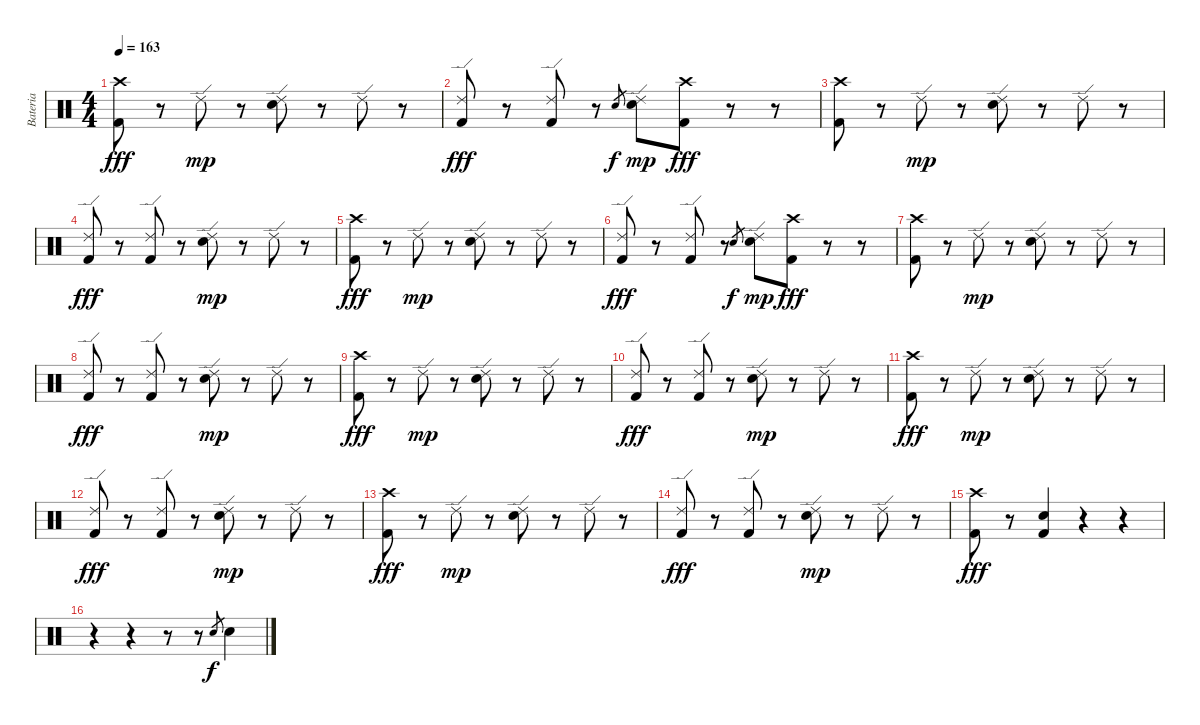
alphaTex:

\track ("Bateria" "Bateria") {instrument percussion}
\staff {score}
\articulation defaults
\ts (4 4)
\tempo 163
\clef neutral
\ks c
("Crash high (hit)" "Kick (hit) 2").8{dy fff} r.8 "Ride (edge) 2".8{dy mp} r.8 ("Ride (edge) 2" "Electric Snare (hit)").8 r.8 "Ride (edge) 2".8 r.8 |
("Ride (edge) 2" "Kick (hit) 2").8{dy fff} r.8 ("Ride (edge) 2" "Kick (hit) 2").8 r.8 "Electric Snare (hit)".8{gr dy f} ("Ride (edge) 2" "Electric Snare (hit)").8{dy mp} ("Crash high (hit)" "Kick (hit) 2").8{dy fff} r.8 r.8 |
("Crash high (hit)" "Kick (hit) 2").8 r.8 "Ride (edge) 2".8{dy mp} r.8 ("Ride (edge) 2" "Electric Snare (hit)").8 r.8 "Ride (edge) 2".8 r.8 |
("Ride (edge) 2" "Kick (hit) 2").8{dy fff} r.8 ("Ride (edge) 2" "Kick (hit) 2").8 r.8 ("Ride (edge) 2" "Electric Snare (hit)").8{dy mp} r.8 "Ride (edge) 2".8 r.8 |
("Crash high (hit)" "Kick (hit) 2").8{dy fff} r.8 "Ride (edge) 2".8{dy mp} r.8 ("Ride (edge) 2" "Electric Snare (hit)").8 r.8 "Ride (edge) 2".8 r.8 |
("Ride (edge) 2" "Kick (hit) 2").8{dy fff} r.8 ("Ride (edge) 2" "Kick (hit) 2").8 r.8 "Electric Snare (hit)".8{gr dy f} ("Ride (edge) 2" "Electric Snare (hit)").8{dy mp} ("Crash high (hit)" "Kick (hit) 2").8{dy fff} r.8 r.8 |
("Crash high (hit)" "Kick (hit) 2").8 r.8 "Ride (edge) 2".8{dy mp} r.8 ("Ride (edge) 2" "Electric Snare (hit)").8 r.8 "Ride (edge) 2".8 r.8 |
("Ride (edge) 2" "Kick (hit) 2").8{dy fff} r.8 ("Ride (edge) 2" "Kick (hit) 2").8 r.8 ("Ride (edge) 2" "Electric Snare (hit)").8{dy mp} r.8 "Ride (edge) 2".8 r.8 |
("Crash high (hit)" "Kick (hit) 2").8{dy fff} r.8 "Ride (edge) 2".8{dy mp} r.8 ("Ride (edge) 2" "Electric Snare (hit)").8 r.8 "Ride (edge) 2".8 r.8 |
("Ride (edge) 2" "Kick (hit) 2").8{dy fff} r.8 ("Ride (edge) 2" "Kick (hit) 2").8 r.8 ("Ride (edge) 2" "Electric Snare (hit)").8{dy mp} r.8 "Ride (edge) 2".8 r.8 |
("Crash high (hit)" "Kick (hit) 2").8{dy fff} r.8 "Ride (edge) 2".8{dy mp} r.8 ("Ride (edge) 2" "Electric Snare (hit)").8 r.8 "Ride (edge) 2".8 r.8 |
("Ride (edge) 2" "Kick (hit) 2").8{dy fff} r.8 ("Ride (edge) 2" "Kick (hit) 2").8 r.8 ("Ride (edge) 2" "Electric Snare (hit)").8{dy mp} r.8 "Ride (edge) 2".8 r.8 |
("Crash high (hit)" "Kick (hit) 2").8{dy fff} r.8 "Ride (edge) 2".8{dy mp} r.8 ("Ride (edge) 2" "Electric Snare (hit)").8 r.8 "Ride (edge) 2".8 r.8 |
("Ride (edge) 2" "Kick (hit) 2").8{dy fff} r.8 ("Ride (edge) 2" "Kick (hit) 2").8 r.8 ("Ride (edge) 2" "Electric Snare (hit)").8{dy mp} r.8 "Ride (edge) 2".8 r.8 |
("Crash high (hit)" "Kick (hit) 2").8{dy fff} r.8 ("Electric Snare (hit)" "Kick (hit) 2").4 r.4 r.4 |
r.4 r.4 r.8 r.8 "Electric Snare (hit)".8{gr dy f} "Electric Snare (hit)".4
